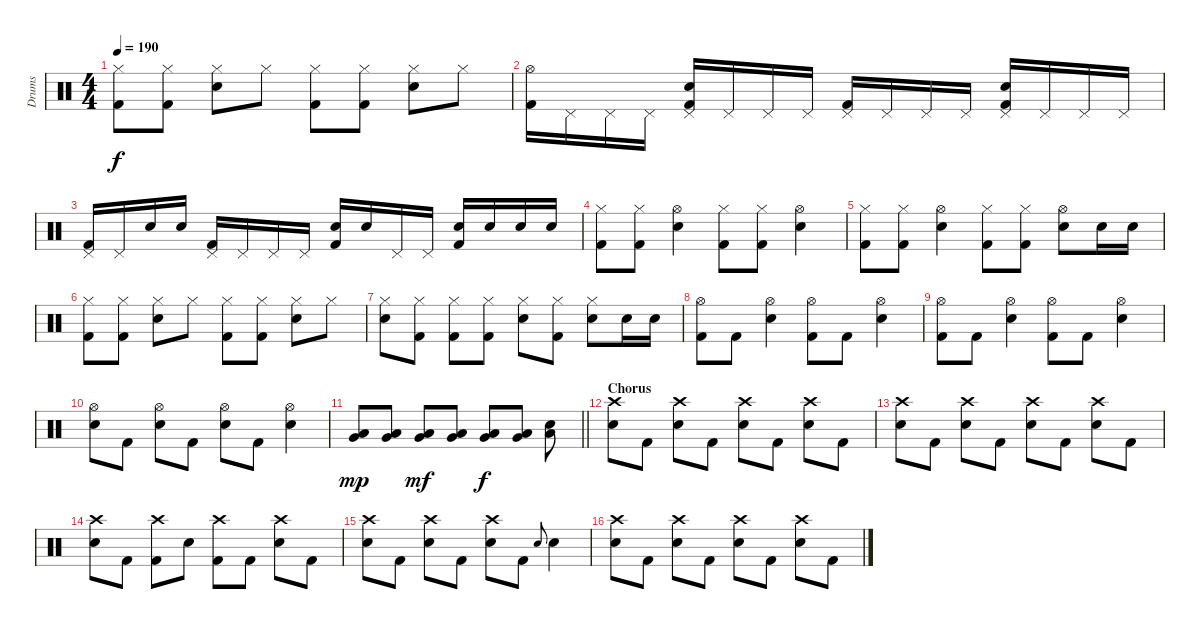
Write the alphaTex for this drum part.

\track ("Drums" "Drums") {instrument percussion}
\staff {score}
\articulation defaults
\ts (4 4)
\tempo 190
\clef neutral
\ks c
("Hi-Hat (closed)" "Kick (hit) 2").8{dy f} ("Hi-Hat (closed)" "Kick (hit) 2").8 ("Hi-Hat (closed)" "Electric Snare (hit)").8 "Hi-Hat (closed)".8 ("Hi-Hat (closed)" "Kick (hit) 2").8 ("Hi-Hat (closed)" "Kick (hit) 2").8 ("Hi-Hat (closed)" "Electric Snare (hit)").8 "Hi-Hat (closed)".8 |
("Hi-Hat (open)" "Kick (hit) 2").16 "Pedal Hi-Hat (hit)".16 "Pedal Hi-Hat (hit)".16 "Pedal Hi-Hat (hit)".16 ("Pedal Hi-Hat (hit)" "Electric Snare (hit)" "Kick (hit) 2").16 "Pedal Hi-Hat (hit)".16 "Pedal Hi-Hat (hit)".16 "Pedal Hi-Hat (hit)".16 ("Pedal Hi-Hat (hit)" "Kick (hit) 2").16 "Pedal Hi-Hat (hit)".16 "Pedal Hi-Hat (hit)".16 "Pedal Hi-Hat (hit)".16 ("Pedal Hi-Hat (hit)" "Electric Snare (hit)" "Kick (hit) 2").16 "Pedal Hi-Hat (hit)".16 "Pedal Hi-Hat (hit)".16 "Pedal Hi-Hat (hit)".16 |
("Pedal Hi-Hat (hit)" "Kick (hit) 2").16 "Pedal Hi-Hat (hit)".16 "Electric Snare (hit)".16 "Electric Snare (hit)".16 ("Pedal Hi-Hat (hit)" "Kick (hit) 2").16 "Pedal Hi-Hat (hit)".16 "Pedal Hi-Hat (hit)".16 "Pedal Hi-Hat (hit)".16 ("Kick (hit) 2" "Electric Snare (hit)").16 "Electric Snare (hit)".16 "Pedal Hi-Hat (hit)".16 "Pedal Hi-Hat (hit)".16 ("Electric Snare (hit)" "Kick (hit) 2").16 "Electric Snare (hit)".16 "Electric Snare (hit)".16 "Electric Snare (hit)".16 |
("Hi-Hat (closed)" "Kick (hit) 2").8 ("Hi-Hat (closed)" "Kick (hit) 2").8 ("Hi-Hat (open)" "Electric Snare (hit)").4 ("Hi-Hat (closed)" "Kick (hit) 2").8 ("Hi-Hat (closed)" "Kick (hit) 2").8 ("Hi-Hat (open)" "Electric Snare (hit)").4 |
("Hi-Hat (closed)" "Kick (hit) 2").8 ("Hi-Hat (closed)" "Kick (hit) 2").8 ("Hi-Hat (open)" "Electric Snare (hit)").4 ("Hi-Hat (closed)" "Kick (hit) 2").8 ("Hi-Hat (closed)" "Kick (hit) 2").8 ("Hi-Hat (open)" "Electric Snare (hit)").8 "Electric Snare (hit)".16 "Electric Snare (hit)".16 |
("Hi-Hat (closed)" "Kick (hit) 2").8 ("Hi-Hat (closed)" "Kick (hit) 2").8 ("Hi-Hat (closed)" "Electric Snare (hit)").8 "Hi-Hat (closed)".8 ("Hi-Hat (closed)" "Kick (hit) 2").8 ("Hi-Hat (closed)" "Kick (hit) 2").8 ("Hi-Hat (closed)" "Electric Snare (hit)").8 "Hi-Hat (closed)".8 |
("Hi-Hat (closed)" "Electric Snare (hit)").8 ("Hi-Hat (closed)" "Kick (hit) 2").8 ("Hi-Hat (closed)" "Kick (hit) 2").8 ("Hi-Hat (closed)" "Kick (hit) 2").8 ("Hi-Hat (closed)" "Electric Snare (hit)").8 ("Hi-Hat (closed)" "Kick (hit) 2").8 ("Hi-Hat (closed)" "Electric Snare (hit)").8 "Electric Snare (hit)".16 "Electric Snare (hit)".16 |
("Hi-Hat (open)" "Kick (hit) 2").8 "Kick (hit) 2".8 ("Hi-Hat (open)" "Electric Snare (hit)").4 ("Hi-Hat (open)" "Kick (hit) 2").8 "Kick (hit) 2".8 ("Hi-Hat (open)" "Electric Snare (hit)").4 |
("Hi-Hat (open)" "Kick (hit) 2").8 "Kick (hit) 2".8 ("Hi-Hat (open)" "Electric Snare (hit)").4 ("Hi-Hat (open)" "Kick (hit) 2").8 "Kick (hit) 2".8 ("Hi-Hat (open)" "Electric Snare (hit)").4 |
("Hi-Hat (open)" "Electric Snare (hit)").8 "Kick (hit) 2".8 ("Hi-Hat (open)" "Electric Snare (hit)").8 "Kick (hit) 2".8 ("Hi-Hat (open)" "Electric Snare (hit)").8 "Kick (hit) 2".8 ("Hi-Hat (open)" "Electric Snare (hit)").4 |
\barLineRight lightlight
("Very Low Tom (hit)" "Low Floor Tom (hit)").8{dy mp} ("Very Low Tom (hit)" "Low Floor Tom (hit)").8 ("Very Low Tom (hit)" "Low Floor Tom (hit)").8{dy mf} ("Very Low Tom (hit)" "Low Floor Tom (hit)").8 ("Very Low Tom (hit)" "Low Floor Tom (hit)").8{dy f} ("Very Low Tom (hit)" "Low Floor Tom (hit)").8 ("Electric Snare (hit)" "Low Floor Tom (hit)").8 |
\section ("" "Chorus ")
("Crash high (hit)" "Electric Snare (hit)").8 "Kick (hit) 2".8 ("Crash high (hit)" "Electric Snare (hit)").8 "Kick (hit) 2".8 ("Crash high (hit)" "Electric Snare (hit)").8 "Kick (hit) 2".8 ("Crash high (hit)" "Electric Snare (hit)").8 "Kick (hit) 2".8 |
("Crash high (hit)" "Electric Snare (hit)").8 "Kick (hit) 2".8 ("Crash high (hit)" "Electric Snare (hit)").8 "Kick (hit) 2".8 ("Crash high (hit)" "Electric Snare (hit)").8 "Kick (hit) 2".8 ("Crash high (hit)" "Electric Snare (hit)").8 "Kick (hit) 2".8 |
("Crash high (hit)" "Electric Snare (hit)").8 "Kick (hit) 2".8 ("Crash high (hit)" "Kick (hit) 2").8 "Electric Snare (hit)".8 ("Crash high (hit)" "Kick (hit) 2").8 "Kick (hit) 2".8 ("Crash high (hit)" "Electric Snare (hit)").8 "Kick (hit) 2".8 |
("Crash high (hit)" "Electric Snare (hit)").8 "Kick (hit) 2".8 ("Crash high (hit)" "Electric Snare (hit)").8 "Kick (hit) 2".8 ("Crash high (hit)" "Electric Snare (hit)").8 "Kick (hit) 2".8 "Electric Snare (hit)".8{gr onbeat} "Electric Snare (hit)".4 |
("Crash high (hit)" "Electric Snare (hit)").8 "Kick (hit) 2".8 ("Crash high (hit)" "Electric Snare (hit)").8 "Kick (hit) 2".8 ("Crash high (hit)" "Electric Snare (hit)").8 "Kick (hit) 2".8 ("Crash high (hit)" "Electric Snare (hit)").8 "Kick (hit) 2".8
